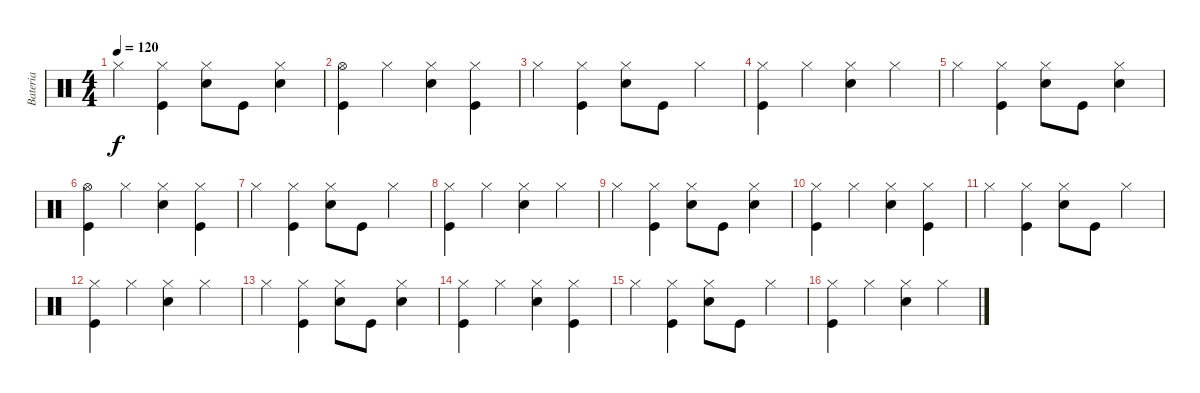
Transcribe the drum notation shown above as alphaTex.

\track ("Bateria" "Bateria") {instrument percussion}
\staff {score}
\articulation defaults
\ts (4 4)
\tempo 120
\clef neutral
\ks c "Hi-Hat (closed)".4{dy f}
("Kick (hit)" "Hi-Hat (closed)").4 ("Electric Snare (hit)" "Hi-Hat (closed)").8 "Kick (hit)".8 ("Electric Snare (hit)" "Hi-Hat (closed)").4 |
("Kick (hit)" "Hi-Hat (open)").4 "Hi-Hat (closed)".4 ("Electric Snare (hit)" "Hi-Hat (closed)").4 ("Kick (hit)" "Hi-Hat (closed)").4 |
"Hi-Hat (closed)".4 ("Kick (hit)" "Hi-Hat (closed)").4 ("Electric Snare (hit)" "Hi-Hat (closed)").8 "Kick (hit)".8 "Hi-Hat (closed)".4 |
("Kick (hit)" "Hi-Hat (closed)").4 "Hi-Hat (closed)".4 ("Electric Snare (hit)" "Hi-Hat (closed)").4 "Hi-Hat (closed)".4 |
"Hi-Hat (closed)".4 ("Kick (hit)" "Hi-Hat (closed)").4 ("Electric Snare (hit)" "Hi-Hat (closed)").8 "Kick (hit)".8 ("Electric Snare (hit)" "Hi-Hat (closed)").4 |
("Kick (hit)" "Hi-Hat (open)").4 "Hi-Hat (closed)".4 ("Electric Snare (hit)" "Hi-Hat (closed)").4 ("Kick (hit)" "Hi-Hat (closed)").4 |
"Hi-Hat (closed)".4 ("Kick (hit)" "Hi-Hat (closed)").4 ("Electric Snare (hit)" "Hi-Hat (closed)").8 "Kick (hit)".8 "Hi-Hat (closed)".4 |
("Kick (hit)" "Hi-Hat (closed)").4 "Hi-Hat (closed)".4 ("Electric Snare (hit)" "Hi-Hat (closed)").4 "Hi-Hat (closed)".4 |
"Hi-Hat (closed)".4 ("Kick (hit)" "Hi-Hat (closed)").4 ("Electric Snare (hit)" "Hi-Hat (closed)").8 "Kick (hit)".8 ("Electric Snare (hit)" "Hi-Hat (closed)").4 |
("Kick (hit)" "Hi-Hat (closed)").4 "Hi-Hat (closed)".4 ("Electric Snare (hit)" "Hi-Hat (closed)").4 ("Kick (hit)" "Hi-Hat (closed)").4 |
"Hi-Hat (closed)".4 ("Kick (hit)" "Hi-Hat (closed)").4 ("Electric Snare (hit)" "Hi-Hat (closed)").8 "Kick (hit)".8 "Hi-Hat (closed)".4 |
("Kick (hit)" "Hi-Hat (closed)").4 "Hi-Hat (closed)".4 ("Electric Snare (hit)" "Hi-Hat (closed)").4 "Hi-Hat (closed)".4 |
"Hi-Hat (closed)".4 ("Kick (hit)" "Hi-Hat (closed)").4 ("Electric Snare (hit)" "Hi-Hat (closed)").8 "Kick (hit)".8 ("Electric Snare (hit)" "Hi-Hat (closed)").4 |
("Kick (hit)" "Hi-Hat (closed)").4 "Hi-Hat (closed)".4 ("Electric Snare (hit)" "Hi-Hat (closed)").4 ("Kick (hit)" "Hi-Hat (closed)").4 |
"Hi-Hat (closed)".4 ("Kick (hit)" "Hi-Hat (closed)").4 ("Electric Snare (hit)" "Hi-Hat (closed)").8 "Kick (hit)".8 "Hi-Hat (closed)".4 |
("Kick (hit)" "Hi-Hat (closed)").4 "Hi-Hat (closed)".4 ("Electric Snare (hit)" "Hi-Hat (closed)").4 "Hi-Hat (closed)".4
